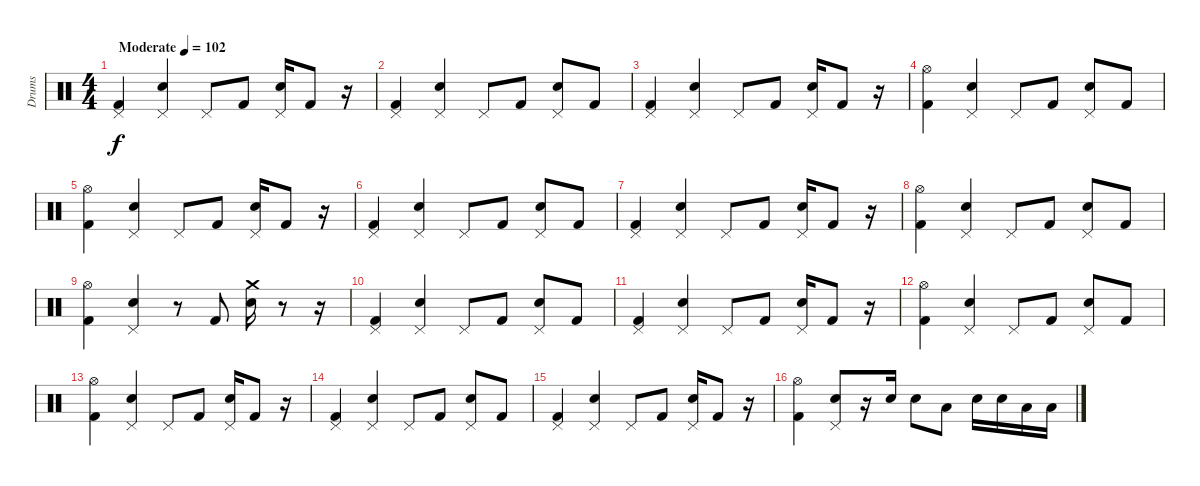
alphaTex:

\track ("Drums" "Drums") {instrument percussion}
\staff {score}
\articulation defaults
\ts (4 4)
\tempo (102 "Moderate")
\clef neutral
\ks c
("Pedal Hi-Hat (hit)" "Kick (hit) 2").4{dy f} ("Pedal Hi-Hat (hit)" "Electric Snare (hit)").4 "Pedal Hi-Hat (hit)".8 "Kick (hit) 2".8 ("Pedal Hi-Hat (hit)" "Electric Snare (hit)").16 "Kick (hit) 2".8 r.16 |
("Pedal Hi-Hat (hit)" "Kick (hit) 2").4 ("Pedal Hi-Hat (hit)" "Electric Snare (hit)").4 "Pedal Hi-Hat (hit)".8 "Kick (hit) 2".8 ("Pedal Hi-Hat (hit)" "Electric Snare (hit)").8 "Kick (hit) 2".8 |
("Pedal Hi-Hat (hit)" "Kick (hit) 2").4 ("Pedal Hi-Hat (hit)" "Electric Snare (hit)").4 "Pedal Hi-Hat (hit)".8 "Kick (hit) 2".8 ("Pedal Hi-Hat (hit)" "Electric Snare (hit)").16 "Kick (hit) 2".8 r.16 |
("Hi-Hat (open)" "Kick (hit) 2").4 ("Pedal Hi-Hat (hit)" "Electric Snare (hit)").4 "Pedal Hi-Hat (hit)".8 "Kick (hit) 2".8 ("Pedal Hi-Hat (hit)" "Electric Snare (hit)").8 "Kick (hit) 2".8 |
("Hi-Hat (open)" "Kick (hit) 2").4 ("Pedal Hi-Hat (hit)" "Electric Snare (hit)").4 "Pedal Hi-Hat (hit)".8 "Kick (hit) 2".8 ("Pedal Hi-Hat (hit)" "Electric Snare (hit)").16 "Kick (hit) 2".8 r.16 |
("Pedal Hi-Hat (hit)" "Kick (hit) 2").4 ("Pedal Hi-Hat (hit)" "Electric Snare (hit)").4 "Pedal Hi-Hat (hit)".8 "Kick (hit) 2".8 ("Pedal Hi-Hat (hit)" "Electric Snare (hit)").8 "Kick (hit) 2".8 |
("Pedal Hi-Hat (hit)" "Kick (hit) 2").4 ("Pedal Hi-Hat (hit)" "Electric Snare (hit)").4 "Pedal Hi-Hat (hit)".8 "Kick (hit) 2".8 ("Pedal Hi-Hat (hit)" "Electric Snare (hit)").16 "Kick (hit) 2".8 r.16 |
("Hi-Hat (open)" "Kick (hit) 2").4 ("Pedal Hi-Hat (hit)" "Electric Snare (hit)").4 "Pedal Hi-Hat (hit)".8 "Kick (hit) 2".8 ("Pedal Hi-Hat (hit)" "Electric Snare (hit)").8 "Kick (hit) 2".8 |
("Hi-Hat (open)" "Kick (hit) 2").4 ("Pedal Hi-Hat (hit)" "Electric Snare (hit)").4 r.8 "Kick (hit) 2".8 ("Crash medium (hit)" "Electric Snare (hit)").16 r.8 r.16 |
("Pedal Hi-Hat (hit)" "Kick (hit) 2").4 ("Pedal Hi-Hat (hit)" "Electric Snare (hit)").4 "Pedal Hi-Hat (hit)".8 "Kick (hit) 2".8 ("Pedal Hi-Hat (hit)" "Electric Snare (hit)").8 "Kick (hit) 2".8 |
("Pedal Hi-Hat (hit)" "Kick (hit) 2").4 ("Pedal Hi-Hat (hit)" "Electric Snare (hit)").4 "Pedal Hi-Hat (hit)".8 "Kick (hit) 2".8 ("Pedal Hi-Hat (hit)" "Electric Snare (hit)").16 "Kick (hit) 2".8 r.16 |
("Hi-Hat (open)" "Kick (hit) 2").4 ("Pedal Hi-Hat (hit)" "Electric Snare (hit)").4 "Pedal Hi-Hat (hit)".8 "Kick (hit) 2".8 ("Pedal Hi-Hat (hit)" "Electric Snare (hit)").8 "Kick (hit) 2".8 |
("Hi-Hat (open)" "Kick (hit) 2").4 ("Pedal Hi-Hat (hit)" "Electric Snare (hit)").4 "Pedal Hi-Hat (hit)".8 "Kick (hit) 2".8 ("Pedal Hi-Hat (hit)" "Electric Snare (hit)").16 "Kick (hit) 2".8 r.16 |
("Pedal Hi-Hat (hit)" "Kick (hit) 2").4 ("Pedal Hi-Hat (hit)" "Electric Snare (hit)").4 "Pedal Hi-Hat (hit)".8 "Kick (hit) 2".8 ("Pedal Hi-Hat (hit)" "Electric Snare (hit)").8 "Kick (hit) 2".8 |
("Pedal Hi-Hat (hit)" "Kick (hit) 2").4 ("Pedal Hi-Hat (hit)" "Electric Snare (hit)").4 "Pedal Hi-Hat (hit)".8 "Kick (hit) 2".8 ("Pedal Hi-Hat (hit)" "Electric Snare (hit)").16 "Kick (hit) 2".8 r.16 |
("Hi-Hat (open)" "Kick (hit) 2").4 ("Pedal Hi-Hat (hit)" "Electric Snare (hit)").8 r.16 "Electric Snare (hit)".16 "Electric Snare (hit)".8 "Low Tom (hit)".8 "Electric Snare (hit)".16 "Electric Snare (hit)".16 "Low Tom (hit)".16 "Low Tom (hit)".16
